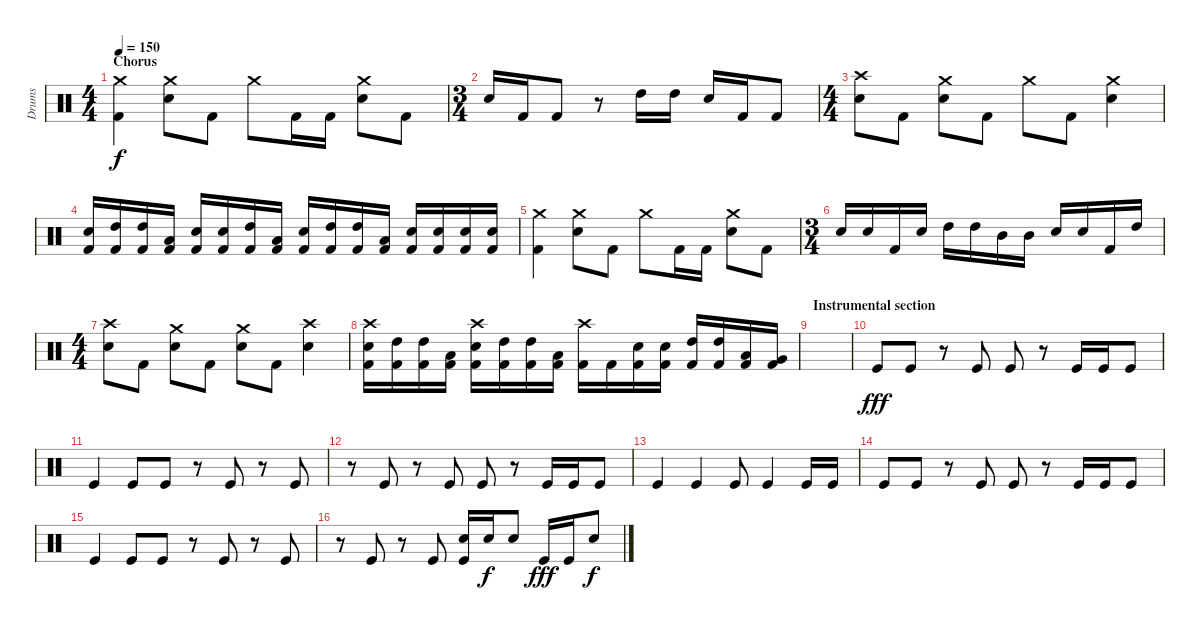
\track ("Drums" "Drums") {instrument percussion}
\staff {score}
\articulation defaults
\ts (4 4)
\section ("" "Chorus")
\tempo 150
\clef neutral
\ks c
("Crash medium (hit)" "Kick (hit) 2").4{dy f} ("Crash medium (hit)" "Electric Snare (hit)").8 "Kick (hit) 2".8 "Crash medium (hit)".8 "Kick (hit) 2".16 "Kick (hit) 2".16 ("Crash medium (hit)" "Electric Snare (hit)").8 "Kick (hit) 2".8 |
\ts (3 4)
"Electric Snare (hit)".16 "Kick (hit) 2".16 "Kick (hit) 2".8 r.8 "High Tom (hit)".16 "High Tom (hit)".16 "Electric Snare (hit)".16 "Kick (hit) 2".16 "Kick (hit) 2".8 |
\ts (4 4)
("Crash high (hit)" "Electric Snare (hit)").8 "Kick (hit) 2".8 ("Crash medium (hit)" "Electric Snare (hit)").8 "Kick (hit) 2".8 "Crash medium (hit)".8 "Kick (hit) 2".8 ("Crash medium (hit)" "Electric Snare (hit)").4 |
("Electric Snare (hit)" "Kick (hit) 2").16 ("High Tom (hit)" "Kick (hit) 2").16 ("High Tom (hit)" "Kick (hit) 2").16 ("Low Tom (hit)" "Kick (hit) 2").16 ("Electric Snare (hit)" "Kick (hit) 2").16 ("Electric Snare (hit)" "Kick (hit) 2").16 ("High Tom (hit)" "Kick (hit) 2").16 ("Low Tom (hit)" "Kick (hit) 2").16 ("Electric Snare (hit)" "Kick (hit) 2").16 ("High Tom (hit)" "Kick (hit) 2").16 ("High Tom (hit)" "Kick (hit) 2").16 ("Low Tom (hit)" "Kick (hit) 2").16 ("Electric Snare (hit)" "Kick (hit) 2").16 ("Electric Snare (hit)" "Kick (hit) 2").16 ("Electric Snare (hit)" "Kick (hit) 2").16 ("Electric Snare (hit)" "Kick (hit) 2").16 |
("Crash medium (hit)" "Kick (hit) 2").4 ("Crash medium (hit)" "Electric Snare (hit)").8 "Kick (hit) 2".8 "Crash medium (hit)".8 "Kick (hit) 2".16 "Kick (hit) 2".16 ("Crash medium (hit)" "Electric Snare (hit)").8 "Kick (hit) 2".8 |
\ts (3 4)
"Electric Snare (hit)".16 "Electric Snare (hit)".16 "Kick (hit) 2".16 "Electric Snare (hit)".16 "High Tom (hit)".16 "High Tom (hit)".16 "Mid Tom (hit)".16 "Mid Tom (hit)".16 "Electric Snare (hit)".16 "Electric Snare (hit)".16 "Kick (hit) 2".16 "High Tom (hit)".16 |
\ts (4 4)
("Crash high (hit)" "Electric Snare (hit)").8 "Kick (hit) 2".8 ("Crash medium (hit)" "Electric Snare (hit)").8 "Kick (hit) 2".8 ("Crash medium (hit)" "Electric Snare (hit)").8 "Kick (hit) 2".8 ("Crash high (hit)" "Electric Snare (hit)").4 |
("Crash high (hit)" "Electric Snare (hit)" "Kick (hit) 2").16 ("High Tom (hit)" "Kick (hit) 2").16 ("High Tom (hit)" "Kick (hit) 2").16 ("Low Tom (hit)" "Kick (hit) 2").16 ("Crash high (hit)" "Electric Snare (hit)" "Kick (hit) 2").16 ("High Tom (hit)" "Kick (hit) 2").16 ("High Tom (hit)" "Kick (hit) 2").16 ("Low Tom (hit)" "Kick (hit) 2").16 ("Crash high (hit)" "Kick (hit) 2").16 "Kick (hit) 2".16 ("Electric Snare (hit)" "Kick (hit) 2").16 ("Electric Snare (hit)" "Kick (hit) 2").16 ("High Tom (hit)" "Kick (hit) 2").16 ("High Tom (hit)" "Kick (hit) 2").16 ("Low Tom (hit)" "Kick (hit) 2").16 ("Very Low Tom (hit)" "Kick (hit) 2").16 |
\section ("" "Instrumental section")
|
"Kick (hit)".8{dy fff} "Kick (hit)".8 r.8 "Kick (hit)".8 "Kick (hit)".8 r.8 "Kick (hit)".16 "Kick (hit)".16 "Kick (hit)".8 |
"Kick (hit)".4 "Kick (hit)".8 "Kick (hit)".8 r.8 "Kick (hit)".8 r.8 "Kick (hit)".8 |
r.8 "Kick (hit)".8 r.8 "Kick (hit)".8 "Kick (hit)".8 r.8 "Kick (hit)".16 "Kick (hit)".16 "Kick (hit)".8 |
"Kick (hit)".4 "Kick (hit)".4 "Kick (hit)".8 "Kick (hit)".4 "Kick (hit)".16 "Kick (hit)".16 |
"Kick (hit)".8 "Kick (hit)".8 r.8 "Kick (hit)".8 "Kick (hit)".8 r.8 "Kick (hit)".16 "Kick (hit)".16 "Kick (hit)".8 |
"Kick (hit)".4 "Kick (hit)".8 "Kick (hit)".8 r.8 "Kick (hit)".8 r.8 "Kick (hit)".8 |
r.8 "Kick (hit)".8 r.8 "Kick (hit)".8 ("Electric Snare (hit)" "Kick (hit)").16 "Electric Snare (hit)".16{dy f} "Electric Snare (hit)".8 "Kick (hit)".16{dy fff} "Kick (hit)".16 "Electric Snare (hit)".8{dy f}
